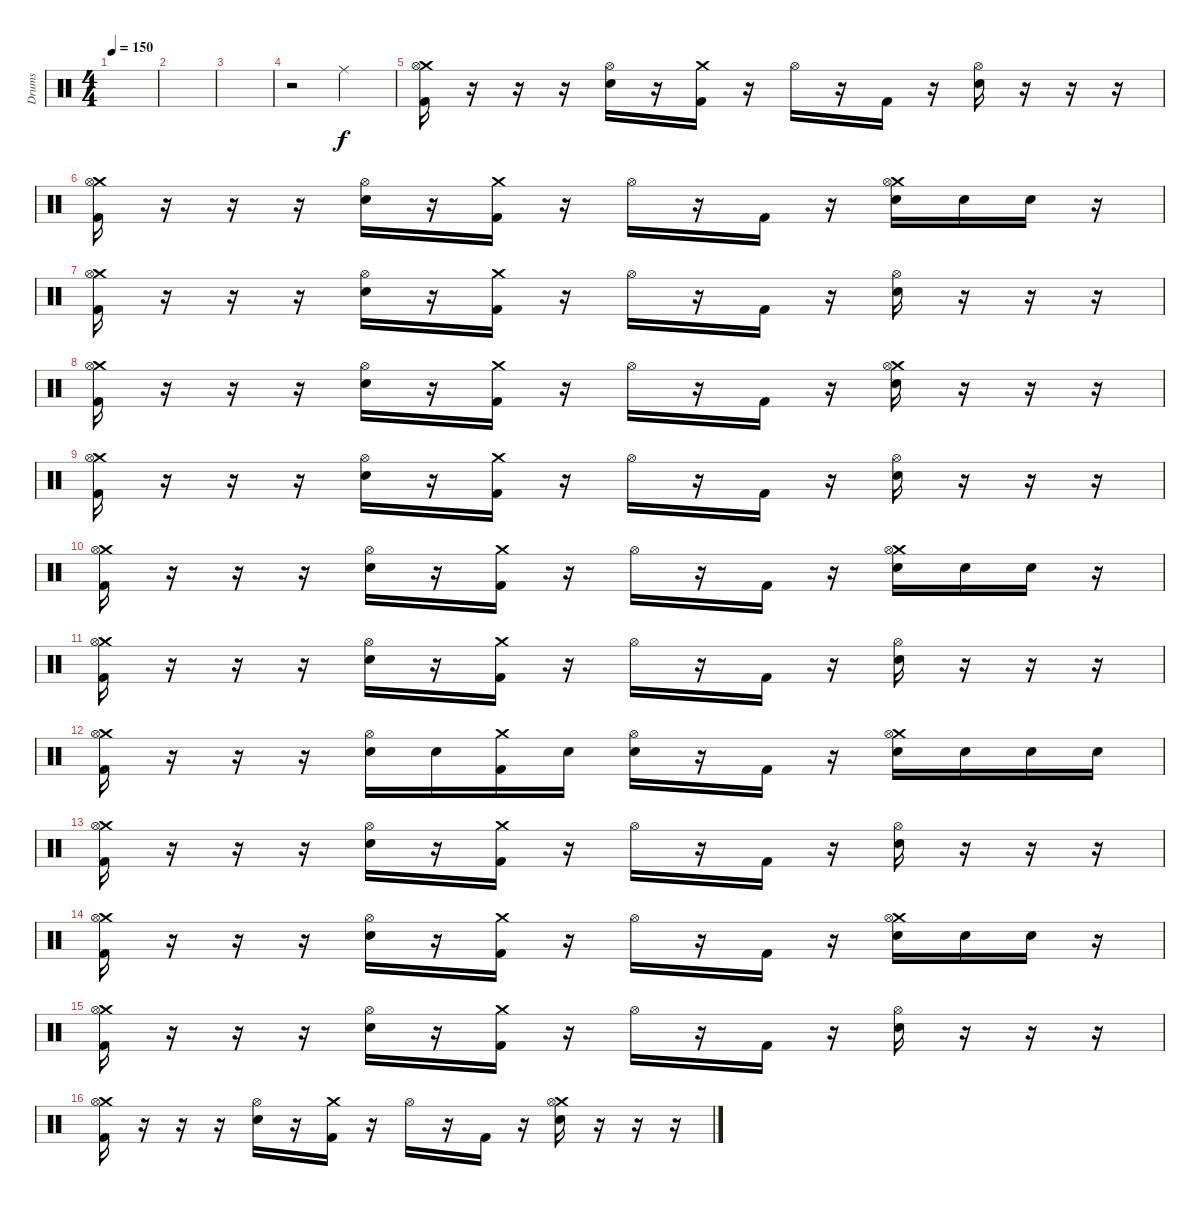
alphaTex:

\track ("Drums" "Drums") {instrument percussion}
\staff {score}
\articulation defaults
\ts (4 4)
\tempo 150
\clef neutral
\ks c
|
|
|
r.2 "Ride (middle)".2 |
("Crash medium (hit)" "Hi-Hat (open)" "Kick (hit) 2").16 r.16 r.16 r.16 ("Hi-Hat (open)" "Electric Snare (hit)").16 r.16 ("Crash medium (hit)" "Kick (hit) 2").16 r.16 "Hi-Hat (open)".16 r.16 "Kick (hit) 2".16 r.16 ("Hi-Hat (open)" "Electric Snare (hit)").16 r.16 r.16 r.16 |
("Crash medium (hit)" "Hi-Hat (open)" "Kick (hit) 2").16 r.16 r.16 r.16 ("Hi-Hat (open)" "Electric Snare (hit)").16 r.16 ("Crash medium (hit)" "Kick (hit) 2").16 r.16 "Hi-Hat (open)".16 r.16 "Kick (hit) 2".16 r.16 ("Crash medium (hit)" "Hi-Hat (open)" "Electric Snare (hit)").16 "Electric Snare (hit)".16 "Electric Snare (hit)".16 r.16 |
("Crash medium (hit)" "Hi-Hat (open)" "Kick (hit) 2").16 r.16 r.16 r.16 ("Hi-Hat (open)" "Electric Snare (hit)").16 r.16 ("Crash medium (hit)" "Kick (hit) 2").16 r.16 "Hi-Hat (open)".16 r.16 "Kick (hit) 2".16 r.16 ("Hi-Hat (open)" "Electric Snare (hit)").16 r.16 r.16 r.16 |
("Crash medium (hit)" "Hi-Hat (open)" "Kick (hit) 2").16 r.16 r.16 r.16 ("Hi-Hat (open)" "Electric Snare (hit)").16 r.16 ("Crash medium (hit)" "Kick (hit) 2").16 r.16 "Hi-Hat (open)".16 r.16 "Kick (hit) 2".16 r.16 ("Crash medium (hit)" "Hi-Hat (open)" "Electric Snare (hit)").16 r.16 r.16 r.16 |
("Crash medium (hit)" "Hi-Hat (open)" "Kick (hit) 2").16 r.16 r.16 r.16 ("Hi-Hat (open)" "Electric Snare (hit)").16 r.16 ("Crash medium (hit)" "Kick (hit) 2").16 r.16 "Hi-Hat (open)".16 r.16 "Kick (hit) 2".16 r.16 ("Hi-Hat (open)" "Electric Snare (hit)").16 r.16 r.16 r.16 |
("Crash medium (hit)" "Hi-Hat (open)" "Kick (hit) 2").16 r.16 r.16 r.16 ("Hi-Hat (open)" "Electric Snare (hit)").16 r.16 ("Crash medium (hit)" "Kick (hit) 2").16 r.16 "Hi-Hat (open)".16 r.16 "Kick (hit) 2".16 r.16 ("Crash medium (hit)" "Hi-Hat (open)" "Electric Snare (hit)").16 "Electric Snare (hit)".16 "Electric Snare (hit)".16 r.16 |
("Crash medium (hit)" "Hi-Hat (open)" "Kick (hit) 2").16 r.16 r.16 r.16 ("Hi-Hat (open)" "Electric Snare (hit)").16 r.16 ("Crash medium (hit)" "Kick (hit) 2").16 r.16 "Hi-Hat (open)".16 r.16 "Kick (hit) 2".16 r.16 ("Hi-Hat (open)" "Electric Snare (hit)").16 r.16 r.16 r.16 |
("Crash medium (hit)" "Hi-Hat (open)" "Kick (hit) 2").16 r.16 r.16 r.16 ("Hi-Hat (open)" "Electric Snare (hit)").16 "Electric Snare (hit)".16 ("Crash medium (hit)" "Kick (hit) 2").16 "Electric Snare (hit)".16 ("Hi-Hat (open)" "Electric Snare (hit)").16 r.16 "Kick (hit) 2".16 r.16 ("Crash medium (hit)" "Hi-Hat (open)" "Electric Snare (hit)").16 "Electric Snare (hit)".16 "Electric Snare (hit)".16 "Electric Snare (hit)".16 |
("Crash medium (hit)" "Hi-Hat (open)" "Kick (hit) 2").16 r.16 r.16 r.16 ("Hi-Hat (open)" "Electric Snare (hit)").16 r.16 ("Crash medium (hit)" "Kick (hit) 2").16 r.16 "Hi-Hat (open)".16 r.16 "Kick (hit) 2".16 r.16 ("Hi-Hat (open)" "Electric Snare (hit)").16 r.16 r.16 r.16 |
("Crash medium (hit)" "Hi-Hat (open)" "Kick (hit) 2").16 r.16 r.16 r.16 ("Hi-Hat (open)" "Electric Snare (hit)").16 r.16 ("Crash medium (hit)" "Kick (hit) 2").16 r.16 "Hi-Hat (open)".16 r.16 "Kick (hit) 2".16 r.16 ("Crash medium (hit)" "Hi-Hat (open)" "Electric Snare (hit)").16 "Electric Snare (hit)".16 "Electric Snare (hit)".16 r.16 |
("Crash medium (hit)" "Hi-Hat (open)" "Kick (hit) 2").16 r.16 r.16 r.16 ("Hi-Hat (open)" "Electric Snare (hit)").16 r.16 ("Crash medium (hit)" "Kick (hit) 2").16 r.16 "Hi-Hat (open)".16 r.16 "Kick (hit) 2".16 r.16 ("Hi-Hat (open)" "Electric Snare (hit)").16 r.16 r.16 r.16 |
("Crash medium (hit)" "Hi-Hat (open)" "Kick (hit) 2").16 r.16 r.16 r.16 ("Hi-Hat (open)" "Electric Snare (hit)").16 r.16 ("Crash medium (hit)" "Kick (hit) 2").16 r.16 "Hi-Hat (open)".16 r.16 "Kick (hit) 2".16 r.16 ("Crash medium (hit)" "Hi-Hat (open)" "Electric Snare (hit)").16 r.16 r.16 r.16
